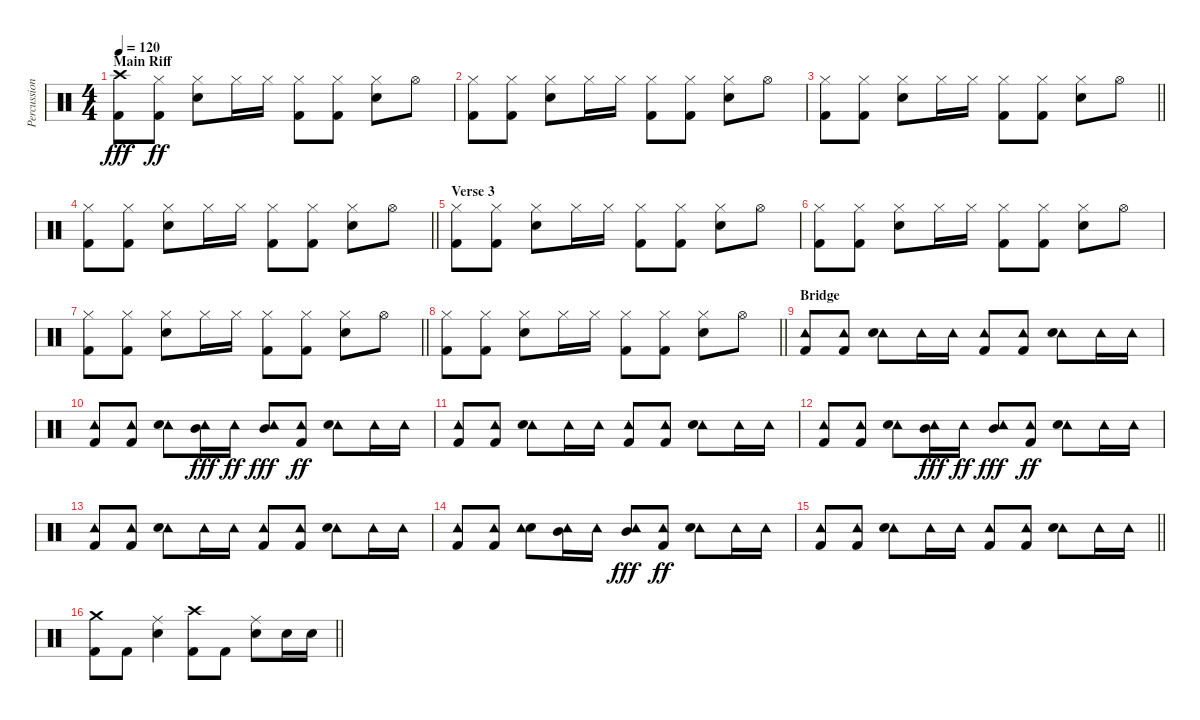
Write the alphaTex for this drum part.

\track ("Percussion" "Percussion") {instrument percussion}
\staff {score}
\articulation defaults
\ts (4 4)
\section ("" "Main Riff")
\tempo 120
\clef neutral
\ks c
("Kick (hit) 2" "Crash high (hit)").8{dy fff} ("Kick (hit) 2" "Hi-Hat (closed)").8{dy ff} ("Snare (hit) 2" "Hi-Hat (closed)").8 "Hi-Hat (closed)".16 "Hi-Hat (closed)".16 ("Kick (hit) 2" "Hi-Hat (closed)").8 ("Hi-Hat (closed)" "Kick (hit) 2").8 ("Hi-Hat (closed)" "Snare (hit) 2").8 "Hi-Hat (open)".8 |
("Hi-Hat (closed)" "Kick (hit) 2").8 ("Kick (hit) 2" "Hi-Hat (closed)").8 ("Snare (hit) 2" "Hi-Hat (closed)").8 "Hi-Hat (closed)".16 "Hi-Hat (closed)".16 ("Kick (hit) 2" "Hi-Hat (closed)").8 ("Hi-Hat (closed)" "Kick (hit) 2").8 ("Hi-Hat (closed)" "Snare (hit) 2").8 "Hi-Hat (open)".8 |
\barLineRight lightlight
("Hi-Hat (closed)" "Kick (hit) 2").8 ("Kick (hit) 2" "Hi-Hat (closed)").8 ("Snare (hit) 2" "Hi-Hat (closed)").8 "Hi-Hat (closed)".16 "Hi-Hat (closed)".16 ("Kick (hit) 2" "Hi-Hat (closed)").8 ("Hi-Hat (closed)" "Kick (hit) 2").8 ("Hi-Hat (closed)" "Snare (hit) 2").8 "Hi-Hat (open)".8 |
\barLineRight lightlight
("Hi-Hat (closed)" "Kick (hit) 2").8 ("Hi-Hat (closed)" "Kick (hit) 2").8 ("Hi-Hat (closed)" "Snare (hit) 2").8 "Hi-Hat (closed)".16 "Hi-Hat (closed)".16 ("Hi-Hat (closed)" "Kick (hit) 2").8 ("Hi-Hat (closed)" "Kick (hit) 2").8 ("Hi-Hat (closed)" "Snare (hit) 2").8 "Hi-Hat (open)".8 |
\section ("" "Verse 3")
("Hi-Hat (closed)" "Kick (hit) 2").8 ("Hi-Hat (closed)" "Kick (hit) 2").8 ("Snare (hit) 2" "Hi-Hat (closed)").8 "Hi-Hat (closed)".16 "Hi-Hat (closed)".16 ("Kick (hit) 2" "Hi-Hat (closed)").8 ("Hi-Hat (closed)" "Kick (hit) 2").8 ("Hi-Hat (closed)" "Snare (hit) 2").8 "Hi-Hat (open)".8 |
("Hi-Hat (closed)" "Kick (hit) 2").8 ("Hi-Hat (closed)" "Kick (hit) 2").8 ("Hi-Hat (closed)" "Snare (hit) 2").8 "Hi-Hat (closed)".16 "Hi-Hat (closed)".16 ("Hi-Hat (closed)" "Kick (hit) 2").8 ("Kick (hit) 2" "Hi-Hat (closed)").8 ("Hi-Hat (closed)" "Snare (hit) 2").8 "Hi-Hat (open)".8 |
\barLineRight lightlight
("Hi-Hat (closed)" "Kick (hit) 2").8 ("Hi-Hat (closed)" "Kick (hit) 2").8 ("Hi-Hat (closed)" "Snare (hit) 2").8 "Hi-Hat (closed)".16 "Hi-Hat (closed)".16 ("Kick (hit) 2" "Hi-Hat (closed)").8 ("Kick (hit) 2" "Hi-Hat (closed)").8 ("Snare (hit) 2" "Hi-Hat (closed)").8 "Hi-Hat (open)".8 |
\barLineRight lightlight
("Kick (hit) 2" "Hi-Hat (closed)").8 ("Hi-Hat (closed)" "Kick (hit) 2").8 ("Snare (hit) 2" "Hi-Hat (closed)").8 "Hi-Hat (closed)".16 "Hi-Hat (closed)".16 ("Hi-Hat (closed)" "Kick (hit) 2").8 ("Hi-Hat (closed)" "Kick (hit) 2").8 ("Hi-Hat (closed)" "Snare (hit) 2").8 "Hi-Hat (open)".8 |
\section ("" "Bridge")
("Tambourine (hit)" "Kick (hit) 2").8 ("Tambourine (hit)" "Kick (hit) 2").8 ("Tambourine (hit)" "Snare (hit) 2").8 "Tambourine (hit)".16 "Tambourine (hit)".16 ("Tambourine (hit)" "Kick (hit) 2").8 ("Tambourine (hit)" "Kick (hit) 2").8 ("Tambourine (hit)" "Snare (hit) 2").8 "Tambourine (hit)".16 "Tambourine (hit)".16 |
("Tambourine (hit)" "Kick (hit) 2").8 ("Tambourine (hit)" "Kick (hit) 2").8 ("Tambourine (hit)" "Snare (hit) 2").8 ("Tambourine (hit)" "Mid Tom (hit)").16{dy fff} "Tambourine (hit)".16{dy ff} ("Tambourine (hit)" "Mid Tom (hit)").8{dy fff} ("Tambourine (hit)" "Kick (hit) 2").8{dy ff} ("Tambourine (hit)" "Snare (hit) 2").8 "Tambourine (hit)".16 "Tambourine (hit)".16 |
("Tambourine (hit)" "Kick (hit) 2").8 ("Tambourine (hit)" "Kick (hit) 2").8 ("Tambourine (hit)" "Snare (hit) 2").8 "Tambourine (hit)".16 "Tambourine (hit)".16 ("Tambourine (hit)" "Kick (hit) 2").8 ("Tambourine (hit)" "Kick (hit) 2").8 ("Tambourine (hit)" "Snare (hit) 2").8 "Tambourine (hit)".16 "Tambourine (hit)".16 |
("Kick (hit) 2" "Tambourine (hit)").8 ("Kick (hit) 2" "Tambourine (hit)").8 ("Tambourine (hit)" "Snare (hit) 2").8 ("Tambourine (hit)" "Mid Tom (hit)").16{dy fff} "Tambourine (hit)".16{dy ff} ("Tambourine (hit)" "Mid Tom (hit)").8{dy fff} ("Tambourine (hit)" "Kick (hit) 2").8{dy ff} ("Tambourine (hit)" "Snare (hit) 2").8 "Tambourine (hit)".16 "Tambourine (hit)".16 |
("Kick (hit) 2" "Tambourine (hit)").8 ("Kick (hit) 2" "Tambourine (hit)").8 ("Tambourine (hit)" "Snare (hit) 2").8 "Tambourine (hit)".16 "Tambourine (hit)".16 ("Tambourine (hit)" "Kick (hit) 2").8 ("Kick (hit) 2" "Tambourine (hit)").8 ("Tambourine (hit)" "Snare (hit) 2").8 "Tambourine (hit)".16 "Tambourine (hit)".16 |
("Kick (hit) 2" "Tambourine (hit)").8 ("Kick (hit) 2" "Tambourine (hit)").8 ("Snare (hit) 2" "Tambourine (hit)").8 ("Mid Tom (hit)" "Tambourine (hit)").16 "Tambourine (hit)".16 ("Tambourine (hit)" "Mid Tom (hit)").8{dy fff} ("Tambourine (hit)" "Kick (hit) 2").8{dy ff} ("Tambourine (hit)" "Snare (hit) 2").8 "Tambourine (hit)".16 "Tambourine (hit)".16 |
\barLineRight lightlight
("Tambourine (hit)" "Kick (hit) 2").8 ("Tambourine (hit)" "Kick (hit) 2").8 ("Tambourine (hit)" "Snare (hit) 2").8 "Tambourine (hit)".16 "Tambourine (hit)".16 ("Tambourine (hit)" "Kick (hit) 2").8 ("Tambourine (hit)" "Kick (hit) 2").8 ("Tambourine (hit)" "Snare (hit) 2").8 "Tambourine (hit)".16 "Tambourine (hit)".16 |
\barLineRight lightlight
("Crash medium (hit)" "Kick (hit) 2").8 "Kick (hit) 2".8 ("Ride (middle)" "Snare (hit) 2").4 ("Crash high (hit)" "Kick (hit) 2").8 "Kick (hit) 2".8 ("Ride (middle)" "Snare (hit) 2").8 "Snare (hit) 2".16 "Snare (hit) 2".16
